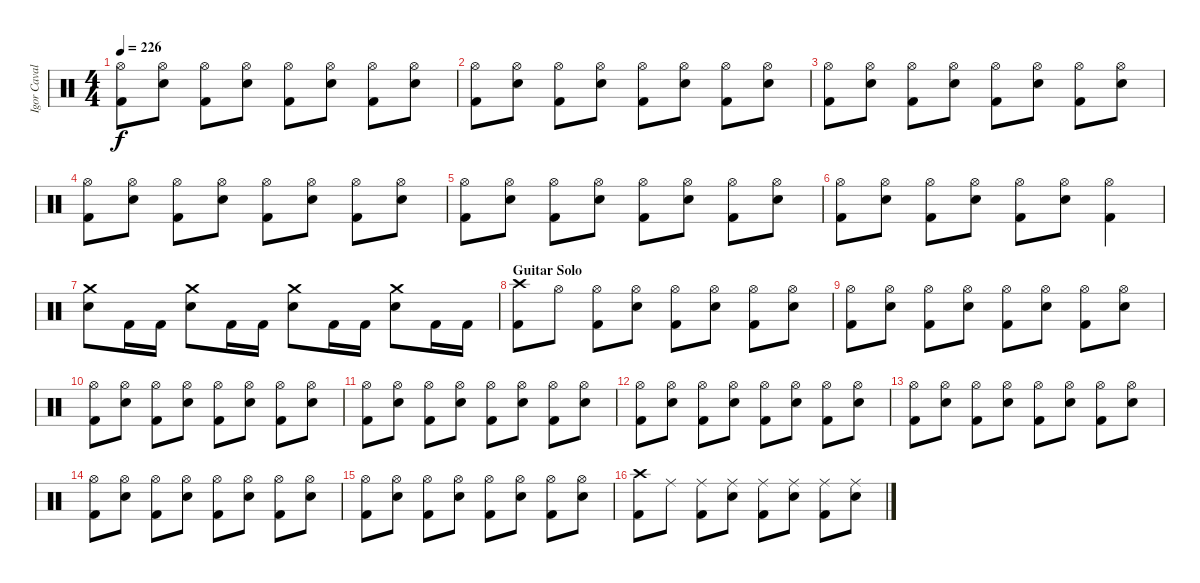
\track ("Igor Cavalera" "Igor Caval") {instrument percussion}
\staff {score}
\articulation defaults
\ts (4 4)
\tempo 226
\clef neutral
\ks c
("Kick (hit) 2" "Hi-Hat (open)").8{dy f} ("Snare (hit) 2" "Hi-Hat (open)").8 ("Kick (hit) 2" "Hi-Hat (open)").8 ("Snare (hit) 2" "Hi-Hat (open)").8 ("Kick (hit) 2" "Hi-Hat (open)").8 ("Snare (hit) 2" "Hi-Hat (open)").8 ("Kick (hit) 2" "Hi-Hat (open)").8 ("Snare (hit) 2" "Hi-Hat (open)").8 |
("Kick (hit) 2" "Hi-Hat (open)").8 ("Snare (hit) 2" "Hi-Hat (open)").8 ("Kick (hit) 2" "Hi-Hat (open)").8 ("Snare (hit) 2" "Hi-Hat (open)").8 ("Kick (hit) 2" "Hi-Hat (open)").8 ("Snare (hit) 2" "Hi-Hat (open)").8 ("Kick (hit) 2" "Hi-Hat (open)").8 ("Snare (hit) 2" "Hi-Hat (open)").8 |
("Kick (hit) 2" "Hi-Hat (open)").8 ("Snare (hit) 2" "Hi-Hat (open)").8 ("Kick (hit) 2" "Hi-Hat (open)").8 ("Snare (hit) 2" "Hi-Hat (open)").8 ("Kick (hit) 2" "Hi-Hat (open)").8 ("Snare (hit) 2" "Hi-Hat (open)").8 ("Kick (hit) 2" "Hi-Hat (open)").8 ("Snare (hit) 2" "Hi-Hat (open)").8 |
("Kick (hit) 2" "Hi-Hat (open)").8 ("Snare (hit) 2" "Hi-Hat (open)").8 ("Kick (hit) 2" "Hi-Hat (open)").8 ("Snare (hit) 2" "Hi-Hat (open)").8 ("Kick (hit) 2" "Hi-Hat (open)").8 ("Snare (hit) 2" "Hi-Hat (open)").8 ("Kick (hit) 2" "Hi-Hat (open)").8 ("Snare (hit) 2" "Hi-Hat (open)").8 |
("Kick (hit) 2" "Hi-Hat (open)").8 ("Snare (hit) 2" "Hi-Hat (open)").8 ("Kick (hit) 2" "Hi-Hat (open)").8 ("Snare (hit) 2" "Hi-Hat (open)").8 ("Kick (hit) 2" "Hi-Hat (open)").8 ("Snare (hit) 2" "Hi-Hat (open)").8 ("Kick (hit) 2" "Hi-Hat (open)").8 ("Snare (hit) 2" "Hi-Hat (open)").8 |
("Kick (hit) 2" "Hi-Hat (open)").8 ("Snare (hit) 2" "Hi-Hat (open)").8 ("Kick (hit) 2" "Hi-Hat (open)").8 ("Snare (hit) 2" "Hi-Hat (open)").8 ("Kick (hit) 2" "Hi-Hat (open)").8 ("Snare (hit) 2" "Hi-Hat (open)").8 ("Kick (hit) 2" "Hi-Hat (open)").4 |
("Snare (hit) 2" "Crash medium (hit)").8 "Kick (hit) 2".16 "Kick (hit) 2".16 ("Snare (hit) 2" "Crash medium (hit)").8 "Kick (hit) 2".16 "Kick (hit) 2".16 ("Snare (hit) 2" "Crash medium (hit)").8 "Kick (hit) 2".16 "Kick (hit) 2".16 ("Snare (hit) 2" "Crash medium (hit)").8 "Kick (hit) 2".16 "Kick (hit) 2".16 |
\section ("" "Guitar Solo")
("Kick (hit) 2" "Crash high (hit)").8 "Hi-Hat (open)".8 ("Kick (hit) 2" "Hi-Hat (open)").8 ("Snare (hit) 2" "Hi-Hat (open)").8 ("Kick (hit) 2" "Hi-Hat (open)").8 ("Snare (hit) 2" "Hi-Hat (open)").8 ("Kick (hit) 2" "Hi-Hat (open)").8 ("Snare (hit) 2" "Hi-Hat (open)").8 |
("Kick (hit) 2" "Hi-Hat (open)").8 ("Snare (hit) 2" "Hi-Hat (open)").8 ("Kick (hit) 2" "Hi-Hat (open)").8 ("Snare (hit) 2" "Hi-Hat (open)").8 ("Kick (hit) 2" "Hi-Hat (open)").8 ("Snare (hit) 2" "Hi-Hat (open)").8 ("Kick (hit) 2" "Hi-Hat (open)").8 ("Snare (hit) 2" "Hi-Hat (open)").8 |
("Kick (hit) 2" "Hi-Hat (open)").8 ("Snare (hit) 2" "Hi-Hat (open)").8 ("Kick (hit) 2" "Hi-Hat (open)").8 ("Snare (hit) 2" "Hi-Hat (open)").8 ("Kick (hit) 2" "Hi-Hat (open)").8 ("Snare (hit) 2" "Hi-Hat (open)").8 ("Kick (hit) 2" "Hi-Hat (open)").8 ("Snare (hit) 2" "Hi-Hat (open)").8 |
("Kick (hit) 2" "Hi-Hat (open)").8 ("Snare (hit) 2" "Hi-Hat (open)").8 ("Kick (hit) 2" "Hi-Hat (open)").8 ("Snare (hit) 2" "Hi-Hat (open)").8 ("Kick (hit) 2" "Hi-Hat (open)").8 ("Snare (hit) 2" "Hi-Hat (open)").8 ("Kick (hit) 2" "Hi-Hat (open)").8 ("Snare (hit) 2" "Hi-Hat (open)").8 |
("Kick (hit) 2" "Hi-Hat (open)").8 ("Snare (hit) 2" "Hi-Hat (open)").8 ("Kick (hit) 2" "Hi-Hat (open)").8 ("Snare (hit) 2" "Hi-Hat (open)").8 ("Kick (hit) 2" "Hi-Hat (open)").8 ("Snare (hit) 2" "Hi-Hat (open)").8 ("Kick (hit) 2" "Hi-Hat (open)").8 ("Snare (hit) 2" "Hi-Hat (open)").8 |
("Kick (hit) 2" "Hi-Hat (open)").8 ("Snare (hit) 2" "Hi-Hat (open)").8 ("Kick (hit) 2" "Hi-Hat (open)").8 ("Snare (hit) 2" "Hi-Hat (open)").8 ("Kick (hit) 2" "Hi-Hat (open)").8 ("Snare (hit) 2" "Hi-Hat (open)").8 ("Kick (hit) 2" "Hi-Hat (open)").8 ("Snare (hit) 2" "Hi-Hat (open)").8 |
("Kick (hit) 2" "Hi-Hat (open)").8 ("Snare (hit) 2" "Hi-Hat (open)").8 ("Kick (hit) 2" "Hi-Hat (open)").8 ("Snare (hit) 2" "Hi-Hat (open)").8 ("Kick (hit) 2" "Hi-Hat (open)").8 ("Snare (hit) 2" "Hi-Hat (open)").8 ("Kick (hit) 2" "Hi-Hat (open)").8 ("Snare (hit) 2" "Hi-Hat (open)").8 |
("Kick (hit) 2" "Hi-Hat (open)").8 ("Snare (hit) 2" "Hi-Hat (open)").8 ("Kick (hit) 2" "Hi-Hat (open)").8 ("Snare (hit) 2" "Hi-Hat (open)").8 ("Kick (hit) 2" "Hi-Hat (open)").8 ("Snare (hit) 2" "Hi-Hat (open)").8 ("Kick (hit) 2" "Hi-Hat (open)").8 ("Snare (hit) 2" "Hi-Hat (open)").8 |
("Kick (hit) 2" "Crash high (hit)").8 "Ride (middle)".8 ("Kick (hit) 2" "Ride (middle)").8 ("Snare (hit) 2" "Ride (middle)").8 ("Kick (hit) 2" "Ride (middle)").8 ("Snare (hit) 2" "Ride (middle)").8 ("Kick (hit) 2" "Ride (middle)").8 ("Snare (hit) 2" "Ride (middle)").8
